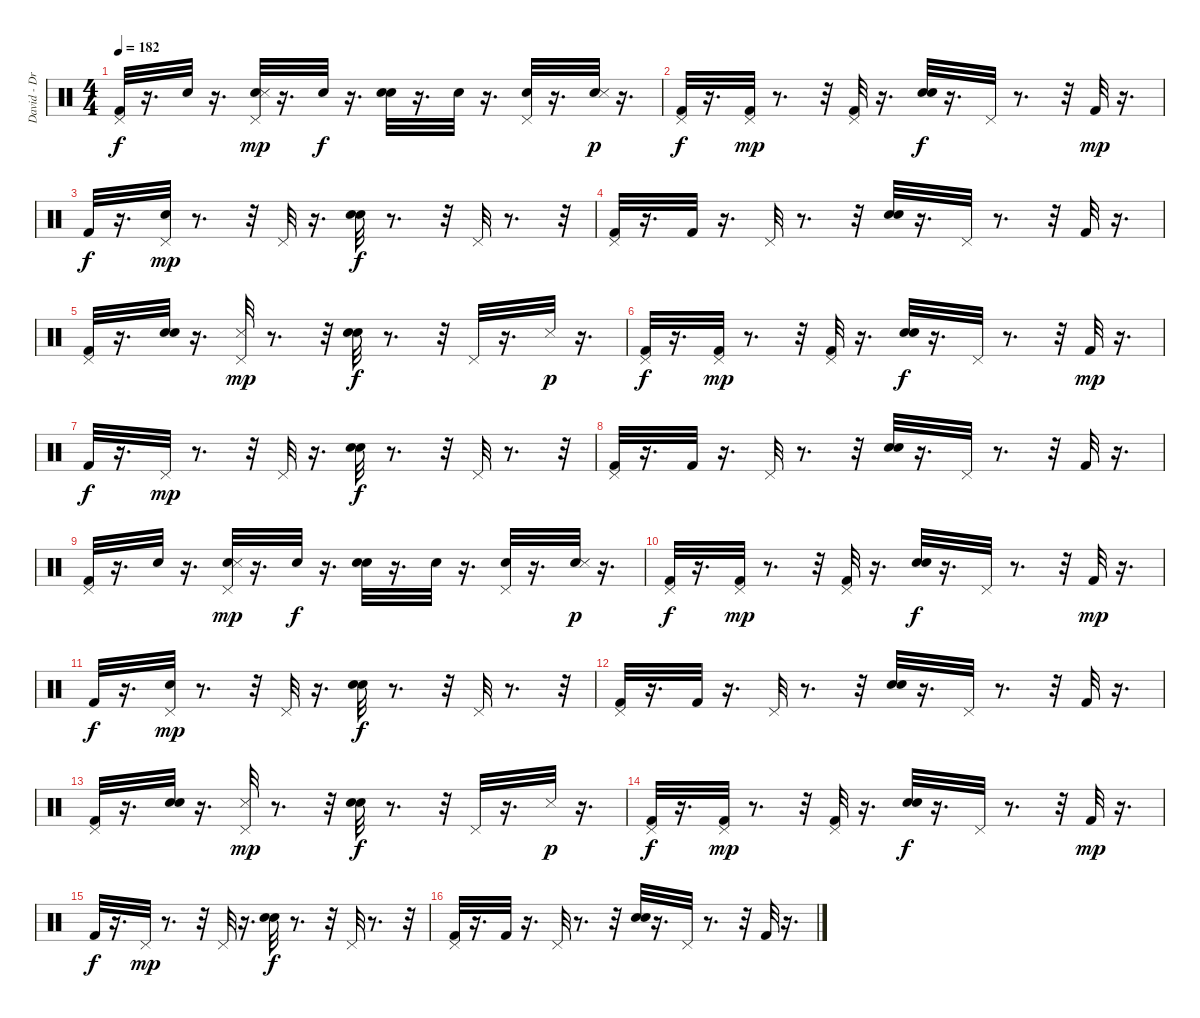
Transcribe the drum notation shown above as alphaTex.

\track ("David - Drums" "David - Dr") {instrument percussion}
\staff {score}
\articulation defaults
\ts (4 4)
\tempo 182
\clef neutral
\ks c
("Pedal Hi-Hat (hit)" "Kick (hit) 2").32{dy f} r.16{d} "Electric Snare (hit)".32 r.16{d} ("Electric Snare (hit)" "Pedal Hi-Hat (hit)" "Snare (side stick) 3").32{dy mp} r.16{d} "Electric Snare (hit)".32{dy f} r.16{d} ("Snare (hit) 2" "Electric Snare (hit)").32 r.16{d} "Electric Snare (hit)".32 r.16{d} ("Electric Snare (hit)" "Pedal Hi-Hat (hit)").32 r.16{d} ("Electric Snare (hit)" "Snare (side stick) 3").32{dy p} r.16{d} |
("Pedal Hi-Hat (hit)" "Kick (hit) 2").32{dy f} r.16{d} ("Kick (hit) 2" "Pedal Hi-Hat (hit)").32{dy mp} r.8{d} r.32 ("Pedal Hi-Hat (hit)" "Kick (hit) 2").32 r.16{d} ("Snare (hit) 2" "Electric Snare (hit)").32{dy f} r.16{d} "Pedal Hi-Hat (hit)".32 r.8{d} r.32 "Kick (hit) 2".32{dy mp} r.16{d} |
"Kick (hit) 2".32{dy f} r.16{d} ("Pedal Hi-Hat (hit)" "Electric Snare (hit)").32{dy mp} r.8{d} r.32 "Pedal Hi-Hat (hit)".32 r.16{d} ("Snare (hit) 2" "Electric Snare (hit)").32{dy f} r.8{d} r.32 "Pedal Hi-Hat (hit)".32 r.8{d} r.32 |
("Pedal Hi-Hat (hit)" "Kick (hit) 2").32 r.16{d} "Kick (hit) 2".32 r.16{d} "Pedal Hi-Hat (hit)".32 r.8{d} r.32 ("Snare (hit) 2" "Electric Snare (hit)").32 r.16{d} "Pedal Hi-Hat (hit)".32 r.8{d} r.32 "Kick (hit) 2".32 r.16{d} |
("Pedal Hi-Hat (hit)" "Kick (hit) 2").32 r.16{d} ("Snare (hit) 2" "Hand Clap (hit)").32 r.16{d} ("Pedal Hi-Hat (hit)" "Snare (side stick) 3").32{dy mp} r.8{d} r.32 ("Snare (hit) 2" "Electric Snare (hit)").32{dy f} r.8{d} r.32 "Pedal Hi-Hat (hit)".32 r.16{d} "Snare (side stick) 3".32{dy p} r.16{d} |
("Pedal Hi-Hat (hit)" "Kick (hit) 2").32{dy f} r.16{d} ("Kick (hit) 2" "Pedal Hi-Hat (hit)").32{dy mp} r.8{d} r.32 ("Pedal Hi-Hat (hit)" "Kick (hit) 2").32 r.16{d} ("Snare (hit) 2" "Electric Snare (hit)").32{dy f} r.16{d} "Pedal Hi-Hat (hit)".32 r.8{d} r.32 "Kick (hit) 2".32{dy mp} r.16{d} |
"Kick (hit) 2".32{dy f} r.16{d} "Pedal Hi-Hat (hit)".32{dy mp} r.8{d} r.32 "Pedal Hi-Hat (hit)".32 r.16{d} ("Snare (hit) 2" "Electric Snare (hit)").32{dy f} r.8{d} r.32 "Pedal Hi-Hat (hit)".32 r.8{d} r.32 |
("Pedal Hi-Hat (hit)" "Kick (hit) 2").32 r.16{d} "Kick (hit) 2".32 r.16{d} "Pedal Hi-Hat (hit)".32 r.8{d} r.32 ("Snare (hit) 2" "Electric Snare (hit)").32 r.16{d} "Pedal Hi-Hat (hit)".32 r.8{d} r.32 "Kick (hit) 2".32 r.16{d} |
("Pedal Hi-Hat (hit)" "Kick (hit) 2").32 r.16{d} "Electric Snare (hit)".32 r.16{d} ("Electric Snare (hit)" "Pedal Hi-Hat (hit)" "Snare (side stick) 3").32{dy mp} r.16{d} "Electric Snare (hit)".32{dy f} r.16{d} ("Snare (hit) 2" "Electric Snare (hit)").32 r.16{d} "Electric Snare (hit)".32 r.16{d} ("Electric Snare (hit)" "Pedal Hi-Hat (hit)").32 r.16{d} ("Electric Snare (hit)" "Snare (side stick) 3").32{dy p} r.16{d} |
("Pedal Hi-Hat (hit)" "Kick (hit) 2").32{dy f} r.16{d} ("Kick (hit) 2" "Pedal Hi-Hat (hit)").32{dy mp} r.8{d} r.32 ("Pedal Hi-Hat (hit)" "Kick (hit) 2").32 r.16{d} ("Snare (hit) 2" "Electric Snare (hit)").32{dy f} r.16{d} "Pedal Hi-Hat (hit)".32 r.8{d} r.32 "Kick (hit) 2".32{dy mp} r.16{d} |
"Kick (hit) 2".32{dy f} r.16{d} ("Pedal Hi-Hat (hit)" "Electric Snare (hit)").32{dy mp} r.8{d} r.32 "Pedal Hi-Hat (hit)".32 r.16{d} ("Snare (hit) 2" "Electric Snare (hit)").32{dy f} r.8{d} r.32 "Pedal Hi-Hat (hit)".32 r.8{d} r.32 |
("Pedal Hi-Hat (hit)" "Kick (hit) 2").32 r.16{d} "Kick (hit) 2".32 r.16{d} "Pedal Hi-Hat (hit)".32 r.8{d} r.32 ("Snare (hit) 2" "Electric Snare (hit)").32 r.16{d} "Pedal Hi-Hat (hit)".32 r.8{d} r.32 "Kick (hit) 2".32 r.16{d} |
("Pedal Hi-Hat (hit)" "Kick (hit) 2").32 r.16{d} ("Snare (hit) 2" "Hand Clap (hit)").32 r.16{d} ("Pedal Hi-Hat (hit)" "Snare (side stick) 3").32{dy mp} r.8{d} r.32 ("Snare (hit) 2" "Electric Snare (hit)").32{dy f} r.8{d} r.32 "Pedal Hi-Hat (hit)".32 r.16{d} "Snare (side stick) 3".32{dy p} r.16{d} |
("Pedal Hi-Hat (hit)" "Kick (hit) 2").32{dy f} r.16{d} ("Kick (hit) 2" "Pedal Hi-Hat (hit)").32{dy mp} r.8{d} r.32 ("Pedal Hi-Hat (hit)" "Kick (hit) 2").32 r.16{d} ("Snare (hit) 2" "Electric Snare (hit)").32{dy f} r.16{d} "Pedal Hi-Hat (hit)".32 r.8{d} r.32 "Kick (hit) 2".32{dy mp} r.16{d} |
"Kick (hit) 2".32{dy f} r.16{d} "Pedal Hi-Hat (hit)".32{dy mp} r.8{d} r.32 "Pedal Hi-Hat (hit)".32 r.16{d} ("Snare (hit) 2" "Electric Snare (hit)").32{dy f} r.8{d} r.32 "Pedal Hi-Hat (hit)".32 r.8{d} r.32 |
("Pedal Hi-Hat (hit)" "Kick (hit) 2").32 r.16{d} "Kick (hit) 2".32 r.16{d} "Pedal Hi-Hat (hit)".32 r.8{d} r.32 ("Snare (hit) 2" "Electric Snare (hit)").32 r.16{d} "Pedal Hi-Hat (hit)".32 r.8{d} r.32 "Kick (hit) 2".32 r.16{d}
